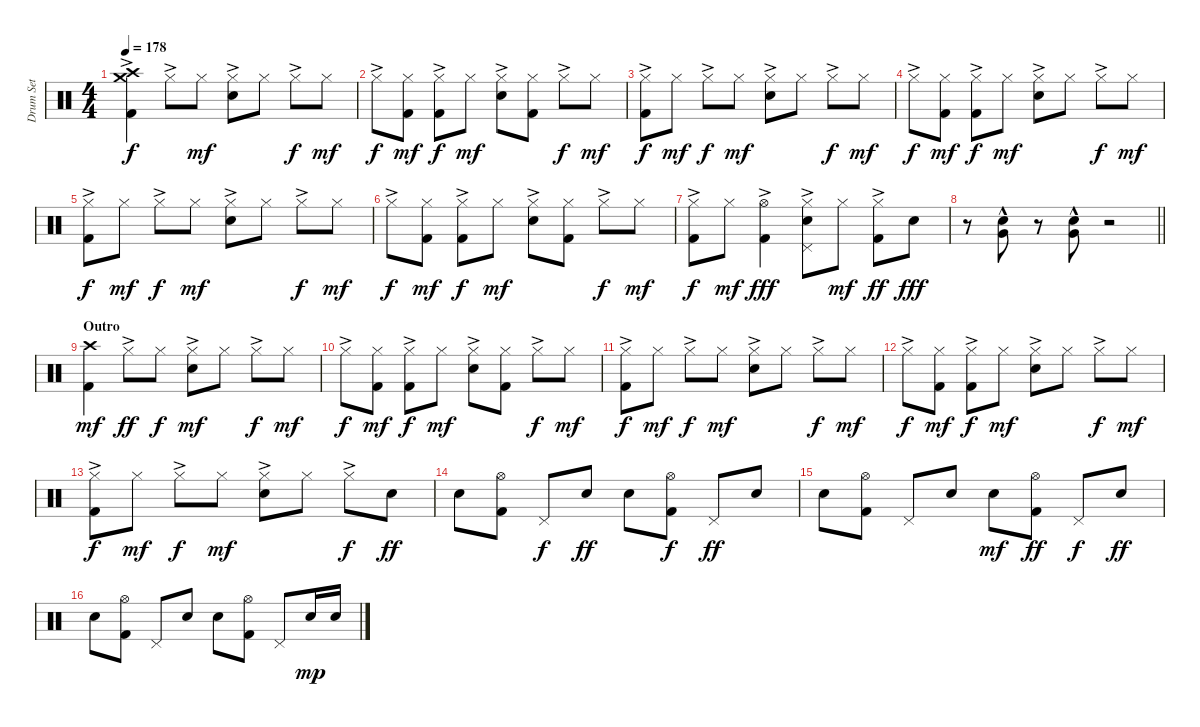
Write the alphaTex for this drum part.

\track ("Drum Set" "Drum Set") {instrument percussion}
\staff {score}
\articulation defaults
\ts (4 4)
\tempo 178
\clef neutral
\ks c
("Crash medium (hit)"{ac} "Crash high (hit)" "Kick (hit) 2").4{dy f volume 13} "Hi-Hat (closed)"{ac}.8 "Hi-Hat (closed)".8{dy mf} ("Hi-Hat (closed)"{ac} "Electric Snare (hit)").8 "Hi-Hat (closed)".8 "Hi-Hat (closed)"{ac}.8{dy f} "Hi-Hat (closed)".8{dy mf} |
"Hi-Hat (closed)"{ac}.8{dy f} ("Hi-Hat (closed)" "Kick (hit) 2").8{dy mf} ("Hi-Hat (closed)"{ac} "Kick (hit) 2").8{dy f} "Hi-Hat (closed)".8{dy mf} ("Hi-Hat (closed)"{ac} "Electric Snare (hit)").8 ("Hi-Hat (closed)" "Kick (hit) 2").8 "Hi-Hat (closed)"{ac}.8{dy f} "Hi-Hat (closed)".8{dy mf} |
("Hi-Hat (closed)"{ac} "Kick (hit) 2").8{dy f} "Hi-Hat (closed)".8{dy mf} "Hi-Hat (closed)"{ac}.8{dy f} "Hi-Hat (closed)".8{dy mf} ("Hi-Hat (closed)"{ac} "Electric Snare (hit)").8 "Hi-Hat (closed)".8 "Hi-Hat (closed)"{ac}.8{dy f} "Hi-Hat (closed)".8{dy mf} |
"Hi-Hat (closed)"{ac}.8{dy f} ("Hi-Hat (closed)" "Kick (hit) 2").8{dy mf} ("Hi-Hat (closed)"{ac} "Kick (hit) 2").8{dy f} "Hi-Hat (closed)".8{dy mf} ("Hi-Hat (closed)"{ac} "Electric Snare (hit)").8 "Hi-Hat (closed)".8 "Hi-Hat (closed)"{ac}.8{dy f} "Hi-Hat (closed)".8{dy mf} |
("Hi-Hat (closed)"{ac} "Kick (hit) 2").8{dy f} "Hi-Hat (closed)".8{dy mf} "Hi-Hat (closed)"{ac}.8{dy f} "Hi-Hat (closed)".8{dy mf} ("Hi-Hat (closed)"{ac} "Electric Snare (hit)").8 "Hi-Hat (closed)".8 "Hi-Hat (closed)"{ac}.8{dy f} "Hi-Hat (closed)".8{dy mf} |
"Hi-Hat (closed)"{ac}.8{dy f} ("Hi-Hat (closed)" "Kick (hit) 2").8{dy mf} ("Hi-Hat (closed)"{ac} "Kick (hit) 2").8{dy f} "Hi-Hat (closed)".8{dy mf} ("Hi-Hat (closed)"{ac} "Electric Snare (hit)").8 ("Hi-Hat (closed)" "Kick (hit) 2").8 "Hi-Hat (closed)"{ac}.8{dy f} "Hi-Hat (closed)".8{dy mf} |
("Hi-Hat (closed)"{ac} "Kick (hit) 2").8{dy f} "Hi-Hat (closed)".8{dy mf} ("Hi-Hat (open)"{ac} "Kick (hit) 2").4{dy fff} ("Hi-Hat (closed)"{ac} "Electric Snare (hit)" "Pedal Hi-Hat (hit)").8 "Hi-Hat (closed)".8{dy mf} ("Hi-Hat (closed)"{ac} "Kick (hit) 2").8{dy ff} "Electric Snare (hit)".8{dy fff} |
\barLineRight lightlight
r.8 ("Very Low Tom (hit)"{hac} "Electric Snare (hit)"{hac}).8{beam Down} r.8 ("Very Low Tom (hit)"{hac} "Electric Snare (hit)"{hac}).8{beam Down} r.2 |
\section ("" "Outro")
("Crash high (hit)" "Kick (hit) 2").4{dy mf} "Hi-Hat (closed)"{ac}.8{dy ff} "Hi-Hat (closed)".8{dy f} ("Hi-Hat (closed)"{ac} "Electric Snare (hit)").8{dy mf} "Hi-Hat (closed)".8 "Hi-Hat (closed)"{ac}.8{dy f} "Hi-Hat (closed)".8{dy mf} |
"Hi-Hat (closed)"{ac}.8{dy f} ("Hi-Hat (closed)" "Kick (hit) 2").8{dy mf} ("Hi-Hat (closed)"{ac} "Kick (hit) 2").8{dy f} "Hi-Hat (closed)".8{dy mf} ("Hi-Hat (closed)"{ac} "Electric Snare (hit)").8 ("Hi-Hat (closed)" "Kick (hit) 2").8 "Hi-Hat (closed)"{ac}.8{dy f} "Hi-Hat (closed)".8{dy mf} |
("Hi-Hat (closed)"{ac} "Kick (hit) 2").8{dy f} "Hi-Hat (closed)".8{dy mf} "Hi-Hat (closed)"{ac}.8{dy f} "Hi-Hat (closed)".8{dy mf} ("Hi-Hat (closed)"{ac} "Electric Snare (hit)").8 "Hi-Hat (closed)".8 "Hi-Hat (closed)"{ac}.8{dy f} "Hi-Hat (closed)".8{dy mf} |
"Hi-Hat (closed)"{ac}.8{dy f} ("Hi-Hat (closed)" "Kick (hit) 2").8{dy mf} ("Hi-Hat (closed)"{ac} "Kick (hit) 2").8{dy f} "Hi-Hat (closed)".8{dy mf} ("Hi-Hat (closed)"{ac} "Electric Snare (hit)").8 "Hi-Hat (closed)".8 "Hi-Hat (closed)"{ac}.8{dy f} "Hi-Hat (closed)".8{dy mf} |
("Hi-Hat (closed)"{ac} "Kick (hit) 2").8{dy f} "Hi-Hat (closed)".8{dy mf} "Hi-Hat (closed)"{ac}.8{dy f} "Hi-Hat (closed)".8{dy mf} ("Hi-Hat (closed)"{ac} "Electric Snare (hit)").8 "Hi-Hat (closed)".8 "Hi-Hat (closed)"{ac}.8{dy f} "Electric Snare (hit)".8{dy ff} |
"Electric Snare (hit)".8 ("Hi-Hat (open)" "Kick (hit) 2").8 "Pedal Hi-Hat (hit)".8{dy f} "Electric Snare (hit)".8{dy ff} "Electric Snare (hit)".8 ("Hi-Hat (open)" "Kick (hit) 2").8{dy f} "Pedal Hi-Hat (hit)".8{dy ff} "Electric Snare (hit)".8 |
"Electric Snare (hit)".8 ("Hi-Hat (open)" "Kick (hit) 2").8 "Pedal Hi-Hat (hit)".8 "Electric Snare (hit)".8 "Electric Snare (hit)".8{dy mf} ("Hi-Hat (open)" "Kick (hit) 2").8{dy ff} "Pedal Hi-Hat (hit)".8{dy f} "Electric Snare (hit)".8{dy ff} |
"Electric Snare (hit)".8 ("Hi-Hat (open)" "Kick (hit) 2").8 "Pedal Hi-Hat (hit)".8 "Electric Snare (hit)".8 "Electric Snare (hit)".8 ("Hi-Hat (open)" "Kick (hit) 2").8 "Pedal Hi-Hat (hit)".8 "Electric Snare (hit)".16{dy mp} "Electric Snare (hit)".16
